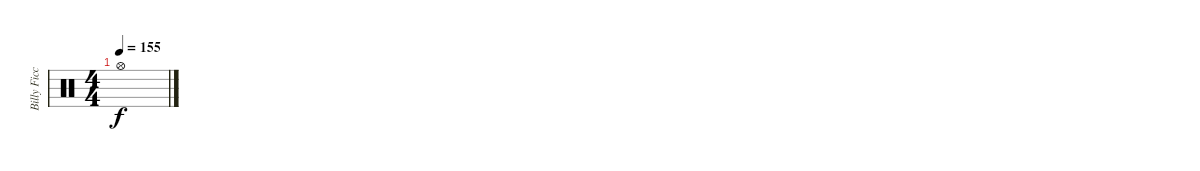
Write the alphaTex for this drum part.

\track ("Billy Ficca" "Billy Ficc") {instrument percussion}
\staff {score}
\articulation defaults
\ts (4 4)
\tempo 155
\clef neutral
\ks c "Hi-Hat (open)".1{dy f}
